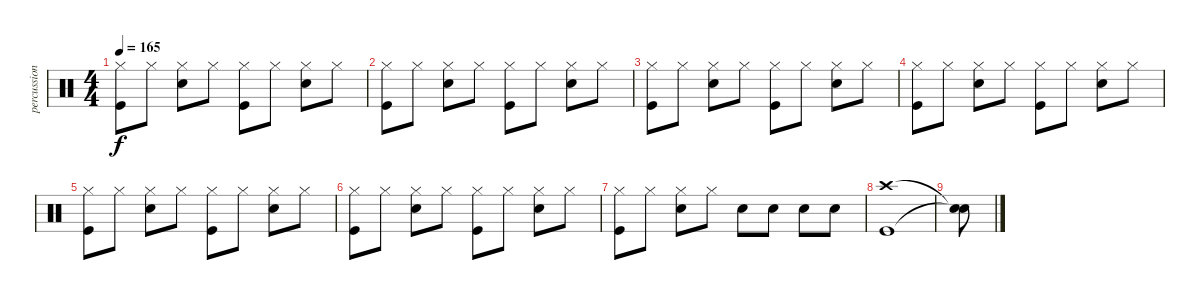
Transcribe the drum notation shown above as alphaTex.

\track ("percussion" "percussion") {instrument percussion}
\staff {score}
\articulation defaults
\ts (4 4)
\tempo 165
\clef neutral
\ks c
("Kick (hit)" "Hi-Hat (closed)").8{dy f} "Hi-Hat (closed)".8 ("Electric Snare (hit)" "Hi-Hat (closed)").8 "Hi-Hat (closed)".8 ("Kick (hit)" "Hi-Hat (closed)").8 "Hi-Hat (closed)".8 ("Electric Snare (hit)" "Hi-Hat (closed)").8 "Hi-Hat (closed)".8 |
("Kick (hit)" "Hi-Hat (closed)").8 "Hi-Hat (closed)".8 ("Electric Snare (hit)" "Hi-Hat (closed)").8 "Hi-Hat (closed)".8 ("Kick (hit)" "Hi-Hat (closed)").8 "Hi-Hat (closed)".8 ("Electric Snare (hit)" "Hi-Hat (closed)").8 "Hi-Hat (closed)".8 |
("Kick (hit)" "Hi-Hat (closed)").8 "Hi-Hat (closed)".8 ("Electric Snare (hit)" "Hi-Hat (closed)").8 "Hi-Hat (closed)".8 ("Kick (hit)" "Hi-Hat (closed)").8 "Hi-Hat (closed)".8 ("Electric Snare (hit)" "Hi-Hat (closed)").8 "Hi-Hat (closed)".8 |
("Kick (hit)" "Hi-Hat (closed)").8 "Hi-Hat (closed)".8 ("Electric Snare (hit)" "Hi-Hat (closed)").8 "Hi-Hat (closed)".8 ("Kick (hit)" "Hi-Hat (closed)").8 "Hi-Hat (closed)".8 ("Electric Snare (hit)" "Hi-Hat (closed)").8 "Hi-Hat (closed)".8 |
("Kick (hit)" "Hi-Hat (closed)").8 "Hi-Hat (closed)".8 ("Electric Snare (hit)" "Hi-Hat (closed)").8 "Hi-Hat (closed)".8 ("Kick (hit)" "Hi-Hat (closed)").8 "Hi-Hat (closed)".8 ("Electric Snare (hit)" "Hi-Hat (closed)").8 "Hi-Hat (closed)".8 |
("Kick (hit)" "Hi-Hat (closed)").8 "Hi-Hat (closed)".8 ("Electric Snare (hit)" "Hi-Hat (closed)").8 "Hi-Hat (closed)".8 ("Kick (hit)" "Hi-Hat (closed)").8 "Hi-Hat (closed)".8 ("Electric Snare (hit)" "Hi-Hat (closed)").8 "Hi-Hat (closed)".8 |
("Kick (hit)" "Hi-Hat (closed)").8 "Hi-Hat (closed)".8 ("Electric Snare (hit)" "Hi-Hat (closed)").8 "Hi-Hat (closed)".8 "Electric Snare (hit)".8 "Electric Snare (hit)".8 "Electric Snare (hit)".8 "Electric Snare (hit)".8 |
("Crash high (hit)" "Kick (hit)").1 |
("Snare (hit)"{t} "Snare (hit)"{t}).8
